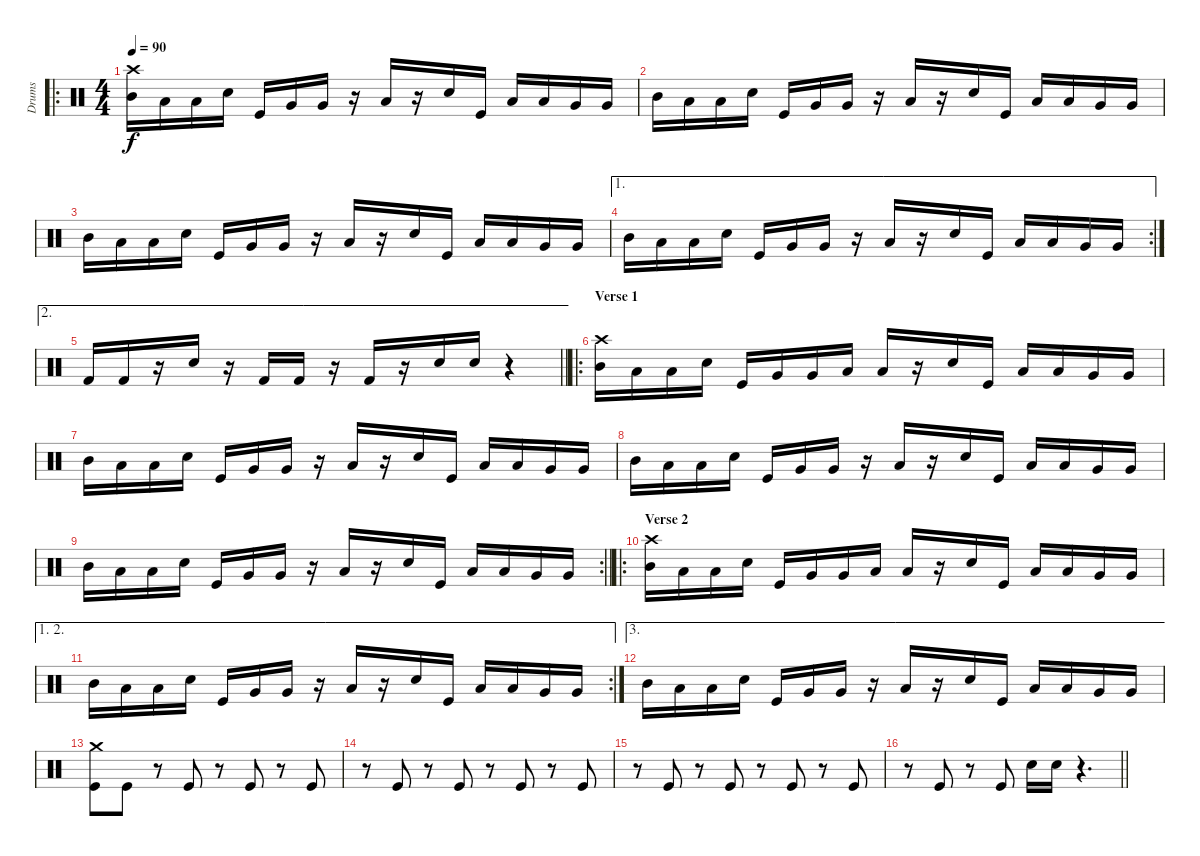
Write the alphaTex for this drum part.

\track ("Drums" "Drums") {instrument percussion}
\staff {score}
\articulation defaults
\ro
\ts (4 4)
\tempo 90
\clef neutral
\ks c
("Crash high (hit)" "Mid Tom (hit)").16{dy f} "Low Tom (hit)".16 "Low Tom (hit)".16 "Snare (hit) 2".16 "Kick (hit)".16 "Very Low Tom (hit)".16 "Very Low Tom (hit)".16 r.16 "Low Floor Tom (hit)".16 r.16 "Snare (hit) 2".16 "Kick (hit)".16 "Low Tom (hit)".16 "Low Tom (hit)".16 "Very Low Tom (hit)".16 "Very Low Tom (hit)".16 |
"Mid Tom (hit)".16 "Low Tom (hit)".16 "Low Tom (hit)".16 "Snare (hit) 2".16 "Kick (hit)".16 "Very Low Tom (hit)".16 "Very Low Tom (hit)".16 r.16 "Low Floor Tom (hit)".16 r.16 "Snare (hit) 2".16 "Kick (hit)".16 "Low Tom (hit)".16 "Low Tom (hit)".16 "Very Low Tom (hit)".16 "Very Low Tom (hit)".16 |
"Mid Tom (hit)".16 "Low Tom (hit)".16 "Low Tom (hit)".16 "Snare (hit) 2".16 "Kick (hit)".16 "Very Low Tom (hit)".16 "Very Low Tom (hit)".16 r.16 "Low Floor Tom (hit)".16 r.16 "Snare (hit) 2".16 "Kick (hit)".16 "Low Tom (hit)".16 "Low Tom (hit)".16 "Very Low Tom (hit)".16 "Very Low Tom (hit)".16 |
\ae 1
\rc 2 "Mid Tom (hit)".16 "Low Tom (hit)".16 "Low Tom (hit)".16 "Snare (hit) 2".16 "Kick (hit)".16 "Very Low Tom (hit)".16 "Very Low Tom (hit)".16
r.16 "Low Floor Tom (hit)".16 r.16 "Snare (hit) 2".16 "Kick (hit)".16 "Low Tom (hit)".16 "Low Tom (hit)".16 "Very Low Tom (hit)".16 "Very Low Tom (hit)".16 |
\ae 2
\barLineRight lightlight "Kick (hit) 2".16 "Kick (hit) 2".16
r.16 "Snare (hit) 2".16 r.16 "Kick (hit) 2".16 "Kick (hit) 2".16 r.16 "Kick (hit) 2".16 r.16 "Snare (hit) 2".16 "Snare (hit) 2".16 r.4 |
\ro
\section ("" "Verse 1")
("Crash high (hit)" "Mid Tom (hit)").16 "Low Tom (hit)".16 "Low Tom (hit)".16 "Snare (hit) 2".16 "Kick (hit)".16 "Very Low Tom (hit)".16 "Very Low Tom (hit)".16 "Low Floor Tom (hit)".16 "Low Floor Tom (hit)".16 r.16 "Snare (hit) 2".16 "Kick (hit)".16 "Low Tom (hit)".16 "Low Tom (hit)".16 "Very Low Tom (hit)".16 "Very Low Tom (hit)".16 |
"Mid Tom (hit)".16 "Low Tom (hit)".16 "Low Tom (hit)".16 "Snare (hit) 2".16 "Kick (hit)".16 "Very Low Tom (hit)".16 "Very Low Tom (hit)".16 r.16 "Low Floor Tom (hit)".16 r.16 "Snare (hit) 2".16 "Kick (hit)".16 "Low Tom (hit)".16 "Low Tom (hit)".16 "Very Low Tom (hit)".16 "Very Low Tom (hit)".16 |
"Mid Tom (hit)".16 "Low Tom (hit)".16 "Low Tom (hit)".16 "Snare (hit) 2".16 "Kick (hit)".16 "Very Low Tom (hit)".16 "Very Low Tom (hit)".16 r.16 "Low Floor Tom (hit)".16 r.16 "Snare (hit) 2".16 "Kick (hit)".16 "Low Tom (hit)".16 "Low Tom (hit)".16 "Very Low Tom (hit)".16 "Very Low Tom (hit)".16 |
\rc 2
\barLineRight lightlight "Mid Tom (hit)".16 "Low Tom (hit)".16 "Low Tom (hit)".16 "Snare (hit) 2".16 "Kick (hit)".16 "Very Low Tom (hit)".16 "Very Low Tom (hit)".16
r.16 "Low Floor Tom (hit)".16 r.16 "Snare (hit) 2".16 "Kick (hit)".16 "Low Tom (hit)".16 "Low Tom (hit)".16 "Very Low Tom (hit)".16 "Very Low Tom (hit)".16 |
\ro
\section ("" "Verse 2")
("Crash high (hit)" "Mid Tom (hit)").16 "Low Tom (hit)".16 "Low Tom (hit)".16 "Snare (hit) 2".16 "Kick (hit)".16 "Very Low Tom (hit)".16 "Very Low Tom (hit)".16 "Low Floor Tom (hit)".16 "Low Floor Tom (hit)".16 r.16 "Snare (hit) 2".16 "Kick (hit)".16 "Low Tom (hit)".16 "Low Tom (hit)".16 "Very Low Tom (hit)".16 "Very Low Tom (hit)".16 |
\ae (1 2)
\rc 2 "Mid Tom (hit)".16 "Low Tom (hit)".16 "Low Tom (hit)".16 "Snare (hit) 2".16 "Kick (hit)".16 "Very Low Tom (hit)".16 "Very Low Tom (hit)".16
r.16 "Low Floor Tom (hit)".16 r.16 "Snare (hit) 2".16 "Kick (hit)".16 "Low Tom (hit)".16 "Low Tom (hit)".16 "Very Low Tom (hit)".16 "Very Low Tom (hit)".16 |
\ae 3 "Mid Tom (hit)".16 "Low Tom (hit)".16 "Low Tom (hit)".16 "Snare (hit) 2".16 "Kick (hit)".16 "Very Low Tom (hit)".16 "Very Low Tom (hit)".16
r.16 "Low Floor Tom (hit)".16 r.16 "Snare (hit) 2".16 "Kick (hit)".16 "Low Tom (hit)".16 "Low Tom (hit)".16 "Very Low Tom (hit)".16 "Very Low Tom (hit)".16 |
("Crash medium (hit)" "Kick (hit)").8 "Kick (hit)".8 r.8 "Kick (hit)".8 r.8 "Kick (hit)".8 r.8 "Kick (hit)".8 |
r.8 "Kick (hit)".8 r.8 "Kick (hit)".8 r.8 "Kick (hit)".8 r.8 "Kick (hit)".8 |
r.8 "Kick (hit)".8 r.8 "Kick (hit)".8 r.8 "Kick (hit)".8 r.8 "Kick (hit)".8 |
\barLineRight lightlight
r.8 "Kick (hit)".8 r.8 "Kick (hit)".8 "Snare (hit) 2".16 "Snare (hit) 2".16 r.4{d}
